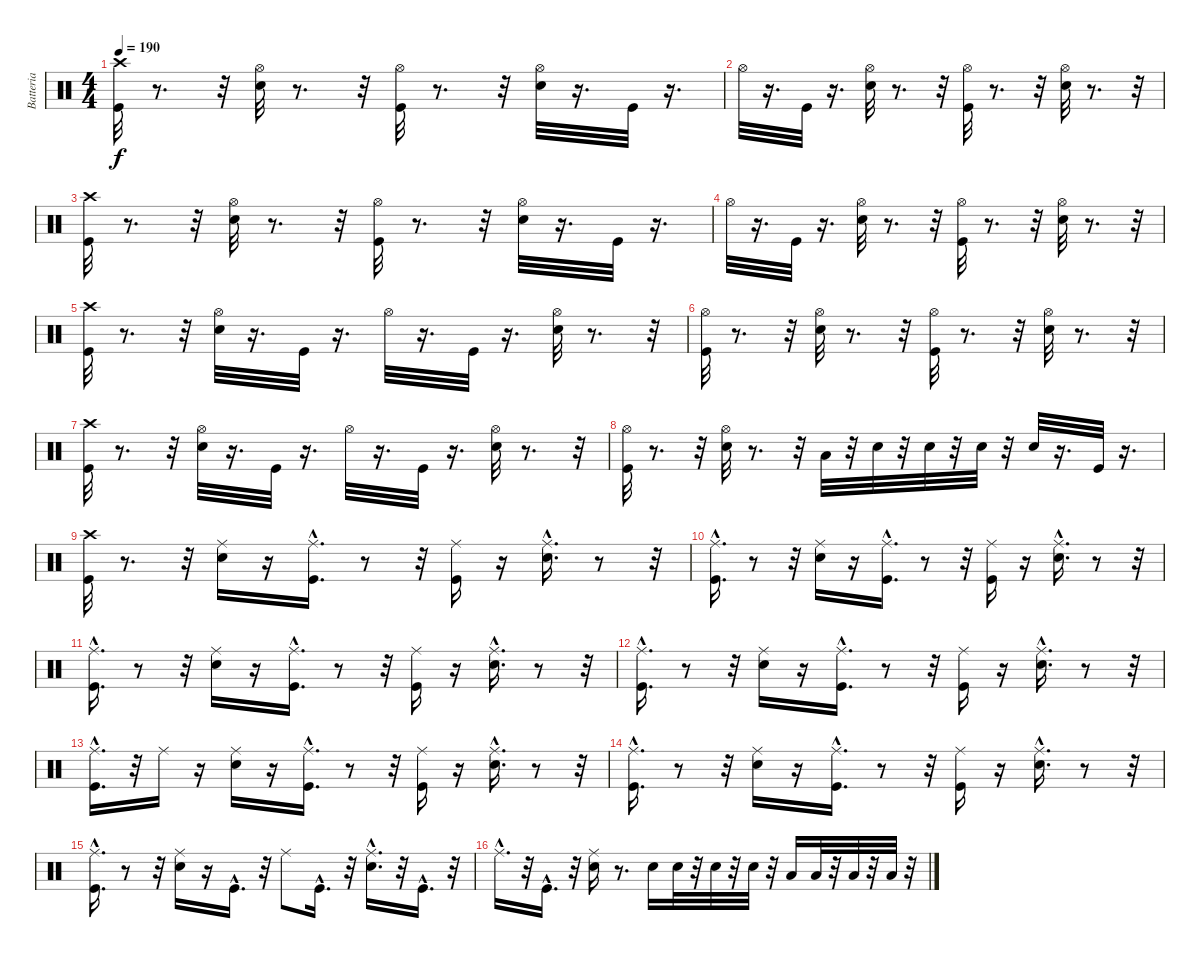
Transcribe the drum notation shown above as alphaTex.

\track ("Batteria" "Batteria") {instrument percussion}
\staff {score}
\articulation defaults
\ts (4 4)
\tempo 190
\clef neutral
\ks c
("Crash high (hit)" "Kick (hit)").32{dy f} r.8{d} r.32 ("Snare (hit) 2" "Hi-Hat (open)").32 r.8{d} r.32 ("Hi-Hat (open)" "Kick (hit)").32 r.8{d} r.32 ("Hi-Hat (open)" "Snare (hit) 2").32 r.16{d} "Kick (hit)".32 r.16{d} |
"Hi-Hat (open)".32 r.16{d} "Kick (hit)".32 r.16{d} ("Hi-Hat (open)" "Snare (hit) 2").32 r.8{d} r.32 ("Hi-Hat (open)" "Kick (hit)").32 r.8{d} r.32 ("Hi-Hat (open)" "Snare (hit) 2").32 r.8{d} r.32 |
("Crash high (hit)" "Kick (hit)").32 r.8{d} r.32 ("Snare (hit) 2" "Hi-Hat (open)").32 r.8{d} r.32 ("Hi-Hat (open)" "Kick (hit)").32 r.8{d} r.32 ("Hi-Hat (open)" "Snare (hit) 2").32 r.16{d} "Kick (hit)".32 r.16{d} |
"Hi-Hat (open)".32 r.16{d} "Kick (hit)".32 r.16{d} ("Hi-Hat (open)" "Snare (hit) 2").32 r.8{d} r.32 ("Hi-Hat (open)" "Kick (hit)").32 r.8{d} r.32 ("Hi-Hat (open)" "Snare (hit) 2").32 r.8{d} r.32 |
("Crash high (hit)" "Kick (hit)").32 r.8{d} r.32 ("Snare (hit) 2" "Hi-Hat (open)").32 r.16{d} "Kick (hit)".32 r.16{d} "Hi-Hat (open)".32 r.16{d} "Kick (hit)".32 r.16{d} ("Hi-Hat (open)" "Snare (hit) 2").32 r.8{d} r.32 |
("Kick (hit)" "Hi-Hat (open)").32 r.8{d} r.32 ("Hi-Hat (open)" "Snare (hit) 2").32 r.8{d} r.32 ("Hi-Hat (open)" "Kick (hit)").32 r.8{d} r.32 ("Hi-Hat (open)" "Snare (hit) 2").32 r.8{d} r.32 |
("Crash high (hit)" "Kick (hit)").32 r.8{d} r.32 ("Snare (hit) 2" "Hi-Hat (open)").32 r.16{d} "Kick (hit)".32 r.16{d} "Hi-Hat (open)".32 r.16{d} "Kick (hit)".32 r.16{d} ("Hi-Hat (open)" "Snare (hit) 2").32 r.8{d} r.32 |
("Kick (hit)" "Hi-Hat (open)").32 r.8{d} r.32 ("Hi-Hat (open)" "Snare (hit) 2").32 r.8{d} r.32 "Low Tom (hit)".32 r.32 "Snare (hit) 2".32 r.32 "Snare (hit) 2".32 r.32 "Snare (hit) 2".32 r.32 "Snare (hit) 2".32 r.16{d} "Kick (hit)".32 r.16{d} |
("Crash high (hit)" "Kick (hit)").32 r.8{d} r.32 ("Snare (hit) 2" "Ride (middle)").16 r.16 ("Kick (hit)"{hac} "Ride (middle)"{hac}).16{d} r.8 r.32 ("Kick (hit)" "Ride (middle)").16 r.16 ("Snare (hit) 2"{hac} "Ride (middle)"{hac}).16{d} r.8 r.32 |
("Kick (hit)"{hac} "Ride (middle)"{hac}).16{d} r.8 r.32 ("Snare (hit) 2" "Ride (middle)").16 r.16 ("Kick (hit)"{hac} "Ride (middle)"{hac}).16{d} r.8 r.32 ("Kick (hit)" "Ride (middle)").16 r.16 ("Snare (hit) 2"{hac} "Ride (middle)"{hac}).16{d} r.8 r.32 |
("Kick (hit)"{hac} "Ride (middle)"{hac}).16{d} r.8 r.32 ("Snare (hit) 2" "Ride (middle)").16 r.16 ("Kick (hit)"{hac} "Ride (middle)"{hac}).16{d} r.8 r.32 ("Kick (hit)" "Ride (middle)").16 r.16 ("Snare (hit) 2"{hac} "Ride (middle)"{hac}).16{d} r.8 r.32 |
("Kick (hit)"{hac} "Ride (middle)"{hac}).16{d} r.8 r.32 ("Snare (hit) 2" "Ride (middle)").16 r.16 ("Kick (hit)"{hac} "Ride (middle)"{hac}).16{d} r.8 r.32 ("Kick (hit)" "Ride (middle)").16 r.16 ("Snare (hit) 2"{hac} "Ride (middle)"{hac}).16{d} r.8 r.32 |
("Kick (hit)"{hac} "Ride (middle)"{hac}).16{d} r.32 "Ride (middle)".16 r.16 ("Snare (hit) 2" "Ride (middle)").16 r.16 ("Kick (hit)"{hac} "Ride (middle)"{hac}).16{d} r.8 r.32 ("Kick (hit)" "Ride (middle)").16 r.16 ("Snare (hit) 2"{hac} "Ride (middle)"{hac}).16{d} r.8 r.32 |
("Kick (hit)"{hac} "Ride (middle)"{hac}).16{d} r.8 r.32 ("Snare (hit) 2" "Ride (middle)").16 r.16 ("Kick (hit)"{hac} "Ride (middle)"{hac}).16{d} r.8 r.32 ("Kick (hit)" "Ride (middle)").16 r.16 ("Snare (hit) 2"{hac} "Ride (middle)"{hac}).16{d} r.8 r.32 |
("Kick (hit)"{hac} "Ride (middle)"{hac}).16{d} r.8 r.32 ("Snare (hit) 2" "Ride (middle)").16 r.16 "Kick (hit)"{hac}.16{d} r.32 "Ride (middle)".8 "Kick (hit)"{hac}.16{d} r.32 ("Snare (hit) 2"{hac} "Ride (middle)"{hac}).16{d} r.32 "Kick (hit)"{hac}.16{d} r.32 |
"Ride (middle)"{hac}.16{d} r.32 "Kick (hit)"{hac}.16{d} r.32 ("Snare (hit) 2" "Ride (middle)").16 r.8{d} "Snare (hit) 2".16 "Snare (hit) 2".32 r.32 "Snare (hit) 2".32 r.32 "Snare (hit) 2".32 r.32 "Low Tom (hit)".16 "Low Tom (hit)".32 r.32 "Low Tom (hit)".32 r.32 "Low Tom (hit)".32 r.32
